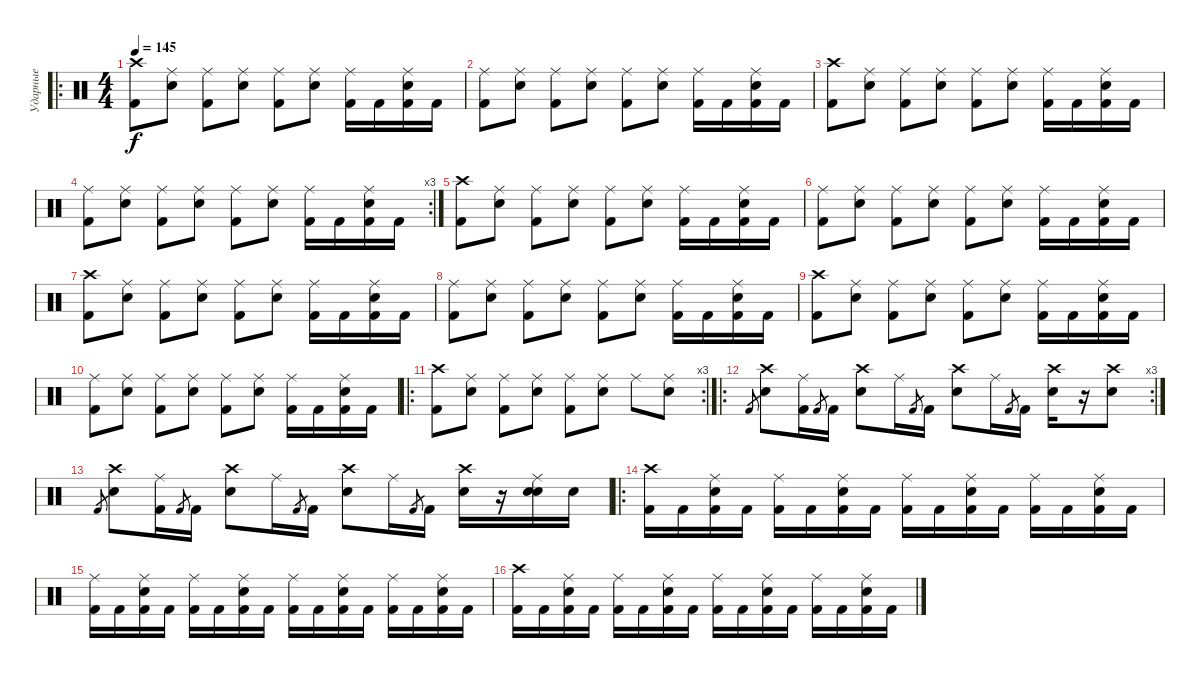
\track ("Ударные" "Ударные") {instrument percussion}
\staff {score}
\articulation defaults
\ro
\ts (4 4)
\tempo 145
\clef neutral
\ks c
("Kick (hit) 2" "Crash high (hit)").8{dy f} ("Electric Snare (hit)" "Ride (middle)").8 ("Kick (hit) 2" "Ride (middle)").8 ("Electric Snare (hit)" "Ride (middle)").8 ("Kick (hit) 2" "Ride (middle)").8 ("Electric Snare (hit)" "Ride (middle)").8 ("Kick (hit) 2" "Ride (middle)").16 "Kick (hit) 2".16 ("Kick (hit) 2" "Ride (middle)" "Electric Snare (hit)").16 "Kick (hit) 2".16 |
("Kick (hit) 2" "Ride (middle)").8 ("Electric Snare (hit)" "Ride (middle)").8 ("Kick (hit) 2" "Ride (middle)").8 ("Electric Snare (hit)" "Ride (middle)").8 ("Kick (hit) 2" "Ride (middle)").8 ("Electric Snare (hit)" "Ride (middle)").8 ("Kick (hit) 2" "Ride (middle)").16 "Kick (hit) 2".16 ("Kick (hit) 2" "Ride (middle)" "Electric Snare (hit)").16 "Kick (hit) 2".16 |
("Kick (hit) 2" "Crash high (hit)").8 ("Electric Snare (hit)" "Ride (middle)").8 ("Kick (hit) 2" "Ride (middle)").8 ("Electric Snare (hit)" "Ride (middle)").8 ("Kick (hit) 2" "Ride (middle)").8 ("Electric Snare (hit)" "Ride (middle)").8 ("Kick (hit) 2" "Ride (middle)").16 "Kick (hit) 2".16 ("Kick (hit) 2" "Ride (middle)" "Electric Snare (hit)").16 "Kick (hit) 2".16 |
\rc 3
("Kick (hit) 2" "Ride (middle)").8 ("Electric Snare (hit)" "Ride (middle)").8 ("Kick (hit) 2" "Ride (middle)").8 ("Electric Snare (hit)" "Ride (middle)").8 ("Kick (hit) 2" "Ride (middle)").8 ("Electric Snare (hit)" "Ride (middle)").8 ("Kick (hit) 2" "Ride (middle)").16 "Kick (hit) 2".16 ("Kick (hit) 2" "Ride (middle)" "Electric Snare (hit)").16 "Kick (hit) 2".16 |
("Kick (hit) 2" "Crash high (hit)").8 ("Electric Snare (hit)" "Ride (middle)").8 ("Kick (hit) 2" "Ride (middle)").8 ("Electric Snare (hit)" "Ride (middle)").8 ("Kick (hit) 2" "Ride (middle)").8 ("Electric Snare (hit)" "Ride (middle)").8 ("Kick (hit) 2" "Ride (middle)").16 "Kick (hit) 2".16 ("Kick (hit) 2" "Ride (middle)" "Electric Snare (hit)").16 "Kick (hit) 2".16 |
("Kick (hit) 2" "Ride (middle)").8 ("Electric Snare (hit)" "Ride (middle)").8 ("Kick (hit) 2" "Ride (middle)").8 ("Electric Snare (hit)" "Ride (middle)").8 ("Kick (hit) 2" "Ride (middle)").8 ("Electric Snare (hit)" "Ride (middle)").8 ("Kick (hit) 2" "Ride (middle)").16 "Kick (hit) 2".16 ("Kick (hit) 2" "Ride (middle)" "Electric Snare (hit)").16 "Kick (hit) 2".16 |
("Kick (hit) 2" "Crash high (hit)").8 ("Electric Snare (hit)" "Ride (middle)").8 ("Kick (hit) 2" "Ride (middle)").8 ("Electric Snare (hit)" "Ride (middle)").8 ("Kick (hit) 2" "Ride (middle)").8 ("Electric Snare (hit)" "Ride (middle)").8 ("Kick (hit) 2" "Ride (middle)").16 "Kick (hit) 2".16 ("Kick (hit) 2" "Ride (middle)" "Electric Snare (hit)").16 "Kick (hit) 2".16 |
("Kick (hit) 2" "Ride (middle)").8 ("Electric Snare (hit)" "Ride (middle)").8 ("Kick (hit) 2" "Ride (middle)").8 ("Electric Snare (hit)" "Ride (middle)").8 ("Kick (hit) 2" "Ride (middle)").8 ("Electric Snare (hit)" "Ride (middle)").8 ("Kick (hit) 2" "Ride (middle)").16 "Kick (hit) 2".16 ("Kick (hit) 2" "Ride (middle)" "Electric Snare (hit)").16 "Kick (hit) 2".16 |
("Kick (hit) 2" "Crash high (hit)").8 ("Electric Snare (hit)" "Ride (middle)").8 ("Kick (hit) 2" "Ride (middle)").8 ("Electric Snare (hit)" "Ride (middle)").8 ("Kick (hit) 2" "Ride (middle)").8 ("Electric Snare (hit)" "Ride (middle)").8 ("Kick (hit) 2" "Ride (middle)").16 "Kick (hit) 2".16 ("Kick (hit) 2" "Ride (middle)" "Electric Snare (hit)").16 "Kick (hit) 2".16 |
("Kick (hit) 2" "Ride (middle)").8 ("Electric Snare (hit)" "Ride (middle)").8 ("Kick (hit) 2" "Ride (middle)").8 ("Electric Snare (hit)" "Ride (middle)").8 ("Kick (hit) 2" "Ride (middle)").8 ("Electric Snare (hit)" "Ride (middle)").8 ("Kick (hit) 2" "Ride (middle)").16 "Kick (hit) 2".16 ("Kick (hit) 2" "Ride (middle)" "Electric Snare (hit)").16 "Kick (hit) 2".16 |
\ro
\rc 3
("Kick (hit) 2" "Crash high (hit)").8 ("Electric Snare (hit)" "Ride (middle)").8 ("Kick (hit) 2" "Ride (middle)").8 ("Electric Snare (hit)" "Ride (middle)").8 ("Kick (hit) 2" "Ride (middle)").8 ("Electric Snare (hit)" "Ride (middle)").8 "Ride (middle)".8 ("Ride (middle)" "Electric Snare (hit)").8 |
\ro
\rc 3 "Kick (hit) 2".8{gr}
("Electric Snare (hit)" "Crash high (hit)").8 ("Kick (hit) 2" "Ride (middle)").16 "Kick (hit) 2".8{gr} "Kick (hit) 2".16 ("Electric Snare (hit)" "Crash high (hit)").8 "Ride (middle)".16 "Kick (hit) 2".8{gr} "Kick (hit) 2".16 ("Electric Snare (hit)" "Crash high (hit)").8 "Ride (middle)".16 "Kick (hit) 2".8{gr} "Kick (hit) 2".16 ("Electric Snare (hit)" "Crash high (hit)").16 r.16 ("Electric Snare (hit)" "Crash high (hit)").8 |
"Kick (hit) 2".8{gr} ("Electric Snare (hit)" "Crash high (hit)").8 ("Kick (hit) 2" "Ride (middle)").16 "Kick (hit) 2".8{gr} "Kick (hit) 2".16 ("Electric Snare (hit)" "Crash high (hit)").8 "Ride (middle)".16 "Kick (hit) 2".8{gr} "Kick (hit) 2".16 ("Electric Snare (hit)" "Crash high (hit)").8 "Ride (middle)".16 "Kick (hit) 2".8{gr} "Kick (hit) 2".16 ("Electric Snare (hit)" "Crash high (hit)").16 r.16 ("Electric Snare (hit)" "Ride (middle)" "Electric Snare (hit)").16 "Electric Snare (hit)".16 |
\ro
("Crash high (hit)" "Kick (hit) 2").16 "Kick (hit) 2".16 ("Electric Snare (hit)" "Ride (middle)" "Kick (hit) 2").16 "Kick (hit) 2".16 ("Ride (middle)" "Kick (hit) 2").16 "Kick (hit) 2".16 ("Electric Snare (hit)" "Ride (middle)" "Kick (hit) 2").16 "Kick (hit) 2".16 ("Ride (middle)" "Kick (hit) 2").16 "Kick (hit) 2".16 ("Electric Snare (hit)" "Ride (middle)" "Kick (hit) 2").16 "Kick (hit) 2".16 ("Ride (middle)" "Kick (hit) 2").16 "Kick (hit) 2".16 ("Electric Snare (hit)" "Ride (middle)" "Kick (hit) 2").16 "Kick (hit) 2".16 |
("Ride (middle)" "Kick (hit) 2").16 "Kick (hit) 2".16 ("Electric Snare (hit)" "Ride (middle)" "Kick (hit) 2").16 "Kick (hit) 2".16 ("Ride (middle)" "Kick (hit) 2").16 "Kick (hit) 2".16 ("Electric Snare (hit)" "Ride (middle)" "Kick (hit) 2").16 "Kick (hit) 2".16 ("Ride (middle)" "Kick (hit) 2").16 "Kick (hit) 2".16 ("Electric Snare (hit)" "Ride (middle)" "Kick (hit) 2").16 "Kick (hit) 2".16 ("Ride (middle)" "Kick (hit) 2").16 "Kick (hit) 2".16 ("Electric Snare (hit)" "Ride (middle)" "Kick (hit) 2").16 "Kick (hit) 2".16 |
("Crash high (hit)" "Kick (hit) 2").16 "Kick (hit) 2".16 ("Electric Snare (hit)" "Ride (middle)" "Kick (hit) 2").16 "Kick (hit) 2".16 ("Ride (middle)" "Kick (hit) 2").16 "Kick (hit) 2".16 ("Electric Snare (hit)" "Ride (middle)" "Kick (hit) 2").16 "Kick (hit) 2".16 ("Ride (middle)" "Kick (hit) 2").16 "Kick (hit) 2".16 ("Electric Snare (hit)" "Ride (middle)" "Kick (hit) 2").16 "Kick (hit) 2".16 ("Ride (middle)" "Kick (hit) 2").16 "Kick (hit) 2".16 ("Electric Snare (hit)" "Ride (middle)" "Kick (hit) 2").16 "Kick (hit) 2".16
